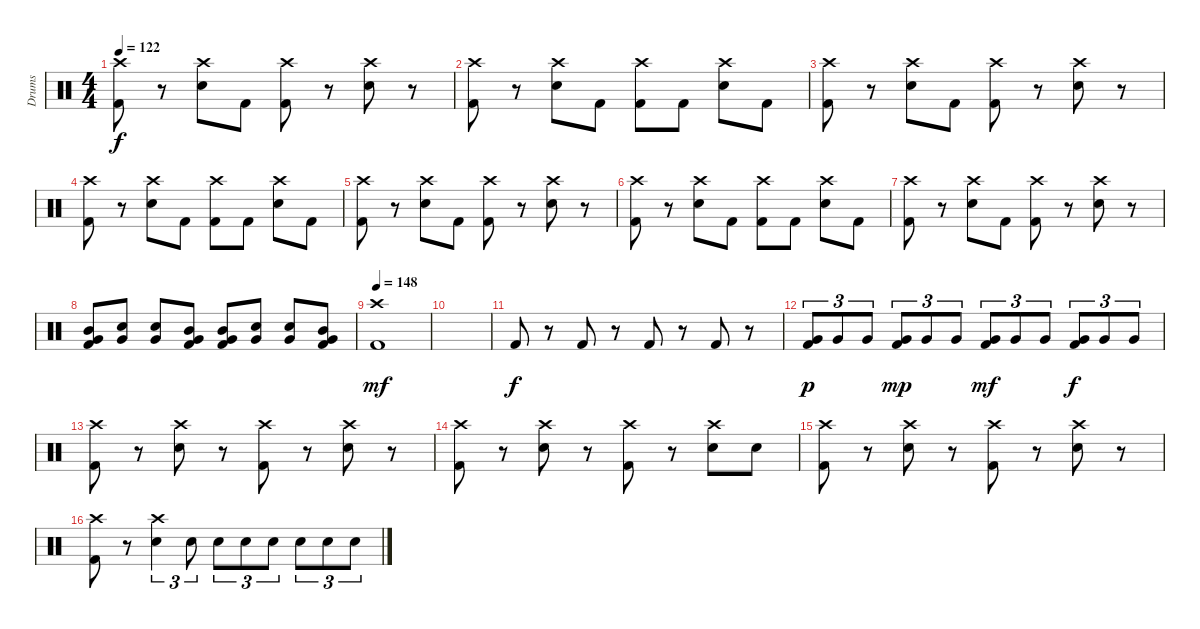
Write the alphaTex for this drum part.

\track ("Drums" "Drums") {instrument percussion}
\staff {score}
\articulation defaults
\ts (4 4)
\tempo 122
\clef neutral
\ks c
("Crash high (hit)" "Kick (hit) 2").8{dy f} r.8 ("Crash high (hit)" "Electric Snare (hit)").8 "Kick (hit) 2".8 ("Crash high (hit)" "Kick (hit) 2").8 r.8 ("Crash high (hit)" "Electric Snare (hit)").8 r.8 |
("Crash high (hit)" "Kick (hit) 2").8 r.8 ("Crash high (hit)" "Electric Snare (hit)").8 "Kick (hit) 2".8 ("Crash high (hit)" "Kick (hit) 2").8 "Kick (hit) 2".8 ("Crash high (hit)" "Electric Snare (hit)").8 "Kick (hit) 2".8 |
("Crash high (hit)" "Kick (hit) 2").8 r.8 ("Crash high (hit)" "Electric Snare (hit)").8 "Kick (hit) 2".8 ("Crash high (hit)" "Kick (hit) 2").8 r.8 ("Crash high (hit)" "Electric Snare (hit)").8 r.8 |
("Crash high (hit)" "Kick (hit) 2").8 r.8 ("Crash high (hit)" "Electric Snare (hit)").8 "Kick (hit) 2".8 ("Crash high (hit)" "Kick (hit) 2").8 "Kick (hit) 2".8 ("Crash high (hit)" "Electric Snare (hit)").8 "Kick (hit) 2".8 |
("Crash high (hit)" "Kick (hit) 2").8 r.8 ("Crash high (hit)" "Electric Snare (hit)").8 "Kick (hit) 2".8 ("Crash high (hit)" "Kick (hit) 2").8 r.8 ("Crash high (hit)" "Electric Snare (hit)").8 r.8 |
("Crash high (hit)" "Kick (hit) 2").8 r.8 ("Crash high (hit)" "Electric Snare (hit)").8 "Kick (hit) 2".8 ("Crash high (hit)" "Kick (hit) 2").8 "Kick (hit) 2".8 ("Crash high (hit)" "Electric Snare (hit)").8 "Kick (hit) 2".8 |
("Crash high (hit)" "Kick (hit) 2").8 r.8 ("Crash high (hit)" "Electric Snare (hit)").8 "Kick (hit) 2".8 ("Crash high (hit)" "Kick (hit) 2").8 r.8 ("Crash high (hit)" "Electric Snare (hit)").8 r.8 |
("Very Low Tom (hit)" "Mid Tom (hit)" "Kick (hit) 2").8 ("Very Low Tom (hit)" "Electric Snare (hit)").8 ("Very Low Tom (hit)" "Electric Snare (hit)").8 ("Very Low Tom (hit)" "Mid Tom (hit)" "Kick (hit) 2").8 ("Very Low Tom (hit)" "Mid Tom (hit)" "Kick (hit) 2").8 ("Very Low Tom (hit)" "Electric Snare (hit)").8 ("Very Low Tom (hit)" "Electric Snare (hit)").8 ("Very Low Tom (hit)" "Mid Tom (hit)" "Kick (hit) 2").8 |
\tempo 148
("Crash high (hit)" "Kick (hit) 2").1{dy mf} |
|
"Kick (hit) 2".8{dy f} r.8 "Kick (hit) 2".8 r.8 "Kick (hit) 2".8 r.8 "Kick (hit) 2".8 r.8 |
("Very Low Tom (hit)" "Kick (hit) 2").8{tu (3 2) dy p} "Very Low Tom (hit)".8{tu (3 2)} "Very Low Tom (hit)".8{tu (3 2)} ("Very Low Tom (hit)" "Kick (hit) 2").8{tu (3 2) dy mp} "Very Low Tom (hit)".8{tu (3 2)} "Very Low Tom (hit)".8{tu (3 2)} ("Very Low Tom (hit)" "Kick (hit) 2").8{tu (3 2) dy mf} "Very Low Tom (hit)".8{tu (3 2)} "Very Low Tom (hit)".8{tu (3 2)} ("Very Low Tom (hit)" "Kick (hit) 2").8{tu (3 2) dy f} "Very Low Tom (hit)".8{tu (3 2)} "Very Low Tom (hit)".8{tu (3 2)} |
("Crash high (hit)" "Kick (hit) 2").8 r.8 ("Crash high (hit)" "Electric Snare (hit)").8 r.8 ("Crash high (hit)" "Kick (hit) 2").8 r.8 ("Crash high (hit)" "Electric Snare (hit)").8 r.8 |
("Crash high (hit)" "Kick (hit) 2").8 r.8 ("Crash high (hit)" "Electric Snare (hit)").8 r.8 ("Crash high (hit)" "Kick (hit) 2").8 r.8 ("Crash high (hit)" "Electric Snare (hit)").8 "Electric Snare (hit)".8 |
("Crash high (hit)" "Kick (hit) 2").8 r.8 ("Crash high (hit)" "Electric Snare (hit)").8 r.8 ("Crash high (hit)" "Kick (hit) 2").8 r.8 ("Crash high (hit)" "Electric Snare (hit)").8 r.8 |
("Crash high (hit)" "Kick (hit) 2").8 r.8 ("Crash high (hit)" "Electric Snare (hit)").4{tu (3 2)} "Electric Snare (hit)".8{tu (3 2)} "Electric Snare (hit)".8{tu (3 2)} "Electric Snare (hit)".8{tu (3 2)} "Electric Snare (hit)".8{tu (3 2)} "Electric Snare (hit)".8{tu (3 2)} "Electric Snare (hit)".8{tu (3 2)} "Electric Snare (hit)".8{tu (3 2)}
